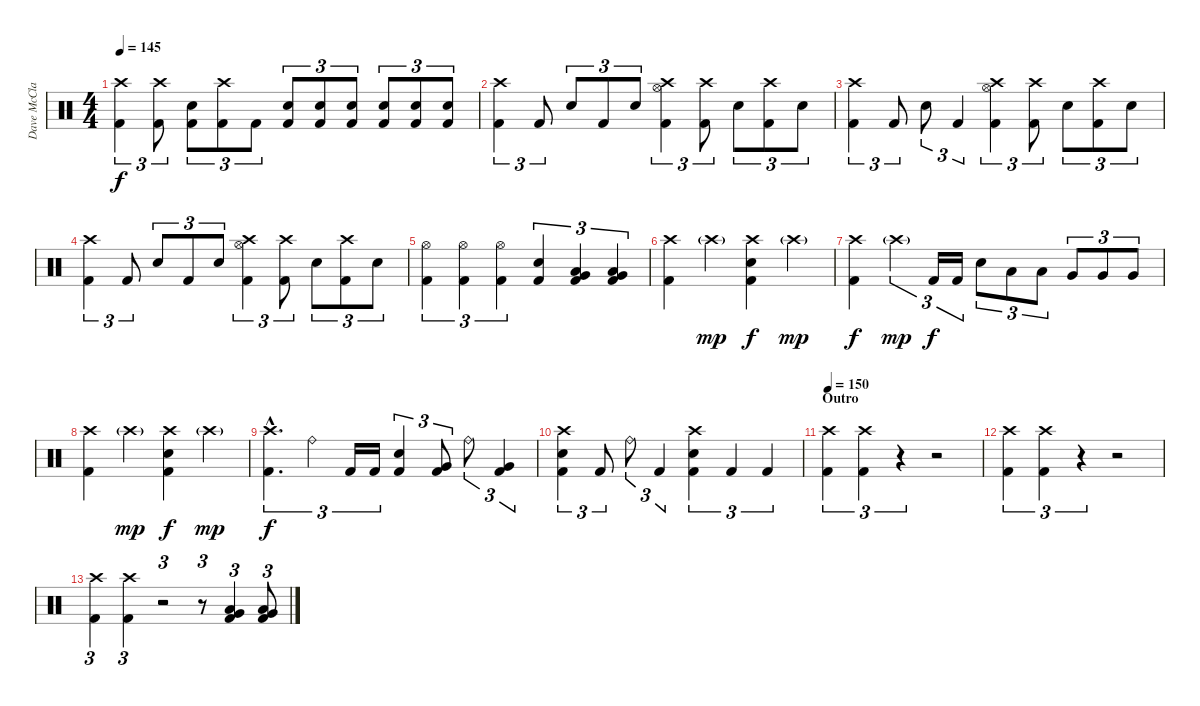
\track ("Dave McClain" "Dave McCla") {instrument percussion}
\staff {score}
\articulation defaults
\ts (4 4)
\tempo 145
\clef neutral
\ks c
("Crash high (hit)" "Kick (hit) 2").4{tu (3 2) dy f} ("Crash high (hit)" "Kick (hit) 2").8{tu (3 2)} ("Electric Snare (hit)" "Kick (hit) 2").8{tu (3 2)} ("Crash high (hit)" "Kick (hit) 2").8{tu (3 2)} "Kick (hit) 2".8{tu (3 2)} ("Electric Snare (hit)" "Kick (hit) 2").8{tu (3 2)} ("Electric Snare (hit)" "Kick (hit) 2").8{tu (3 2)} ("Electric Snare (hit)" "Kick (hit) 2").8{tu (3 2)} ("Electric Snare (hit)" "Kick (hit) 2").8{tu (3 2)} ("Electric Snare (hit)" "Kick (hit) 2").8{tu (3 2)} ("Electric Snare (hit)" "Kick (hit) 2").8{tu (3 2)} |
("Crash high (hit)" "Kick (hit) 2").4{tu (3 2)} "Kick (hit) 2".8{tu (3 2)} "Electric Snare (hit)".8{tu (3 2)} "Kick (hit) 2".8{tu (3 2)} "Electric Snare (hit)".8{tu (3 2)} ("Crash high (hit)" "Hi-Hat (open)" "Kick (hit) 2").4{tu (3 2)} ("Crash high (hit)" "Kick (hit) 2").8{tu (3 2)} "Electric Snare (hit)".8{tu (3 2)} ("Crash high (hit)" "Kick (hit) 2").8{tu (3 2)} "Electric Snare (hit)".8{tu (3 2)} |
("Crash high (hit)" "Kick (hit) 2").4{tu (3 2)} "Kick (hit) 2".8{tu (3 2)} "Electric Snare (hit)".8{tu (3 2)} "Kick (hit) 2".4{tu (3 2)} ("Crash high (hit)" "Hi-Hat (open)" "Kick (hit) 2").4{tu (3 2)} ("Crash high (hit)" "Kick (hit) 2").8{tu (3 2)} "Electric Snare (hit)".8{tu (3 2)} ("Crash high (hit)" "Kick (hit) 2").8{tu (3 2)} "Electric Snare (hit)".8{tu (3 2)} |
("Crash high (hit)" "Kick (hit) 2").4{tu (3 2)} "Kick (hit) 2".8{tu (3 2)} "Electric Snare (hit)".8{tu (3 2)} "Kick (hit) 2".8{tu (3 2)} "Electric Snare (hit)".8{tu (3 2)} ("Crash high (hit)" "Hi-Hat (open)" "Kick (hit) 2").4{tu (3 2)} ("Crash high (hit)" "Kick (hit) 2").8{tu (3 2)} "Electric Snare (hit)".8{tu (3 2)} ("Crash high (hit)" "Kick (hit) 2").8{tu (3 2)} "Electric Snare (hit)".8{tu (3 2)} |
("Hi-Hat (open)" "Kick (hit) 2").4{tu (3 2)} ("Hi-Hat (open)" "Kick (hit) 2").4{tu (3 2)} ("Hi-Hat (open)" "Kick (hit) 2").4{tu (3 2)} ("Electric Snare (hit)" "Kick (hit) 2").4{tu (3 2)} ("Low Tom (hit)" "Very Low Tom (hit)" "Kick (hit) 2").4{tu (3 2)} ("Low Tom (hit)" "Very Low Tom (hit)" "Kick (hit) 2").4{tu (3 2)} |
("Crash high (hit)" "Kick (hit) 2").4 "Crash high (hit)"{g}.4{dy mp} ("Crash high (hit)" "Electric Snare (hit)" "Kick (hit) 2").4{dy f} "Crash high (hit)"{g}.4{dy mp} |
("Crash high (hit)" "Kick (hit) 2").4{dy f} "Crash high (hit)"{g}.4{tu (3 2) dy mp} "Kick (hit) 2".16{tu (3 2) dy f} "Kick (hit) 2".16{tu (3 2)} "Electric Snare (hit)".8{tu (3 2)} "Low Tom (hit)".8{tu (3 2)} "Low Tom (hit)".8{tu (3 2)} "Very Low Tom (hit)".8{tu (3 2)} "Very Low Tom (hit)".8{tu (3 2)} "Very Low Tom (hit)".8{tu (3 2)} |
("Crash high (hit)" "Kick (hit) 2").4 "Crash high (hit)"{g}.4{dy mp} ("Crash high (hit)" "Electric Snare (hit)" "Kick (hit) 2").4{dy f} "Crash high (hit)"{g}.4{dy mp} |
("Crash high (hit)"{hac} "Kick (hit) 2"{hac}).4{d tu (3 2) dy f} "Ride (bell)".4{tu (3 2)} "Kick (hit) 2".16{tu (3 2)} "Kick (hit) 2".16{tu (3 2)} ("Electric Snare (hit)" "Kick (hit) 2").4{tu (3 2)} ("Very Low Tom (hit)" "Kick (hit) 2").8{tu (3 2)} "Ride (bell)".8{tu (3 2)} ("Very Low Tom (hit)" "Kick (hit) 2").4{tu (3 2)} |
("Crash high (hit)" "Electric Snare (hit)" "Kick (hit) 2").4{tu (3 2)} "Kick (hit) 2".8{tu (3 2)} "Ride (bell)".8{tu (3 2)} "Kick (hit) 2".4{tu (3 2)} ("Crash high (hit)" "Electric Snare (hit)" "Kick (hit) 2").4{tu (3 2)} "Kick (hit) 2".4{tu (3 2)} "Kick (hit) 2".4{tu (3 2)} |
\section ("" "Outro")
\tempo 150
("Crash high (hit)" "Kick (hit) 2").4{tu (3 2)} ("Crash high (hit)" "Kick (hit) 2").4{tu (3 2)} r.4{tu (3 2)} r.2 |
("Crash high (hit)" "Kick (hit) 2").4{tu (3 2)} ("Crash high (hit)" "Kick (hit) 2").4{tu (3 2)} r.4{tu (3 2)} r.2 |
("Crash high (hit)" "Kick (hit) 2").4{tu (3 2)} ("Crash high (hit)" "Kick (hit) 2").4{tu (3 2)} r.2{tu (3 2)} r.8{tu (3 2)} ("Low Tom (hit)" "Very Low Tom (hit)" "Kick (hit) 2").4{tu (3 2)} ("Low Tom (hit)" "Very Low Tom (hit)" "Kick (hit) 2").8{tu (3 2)}
